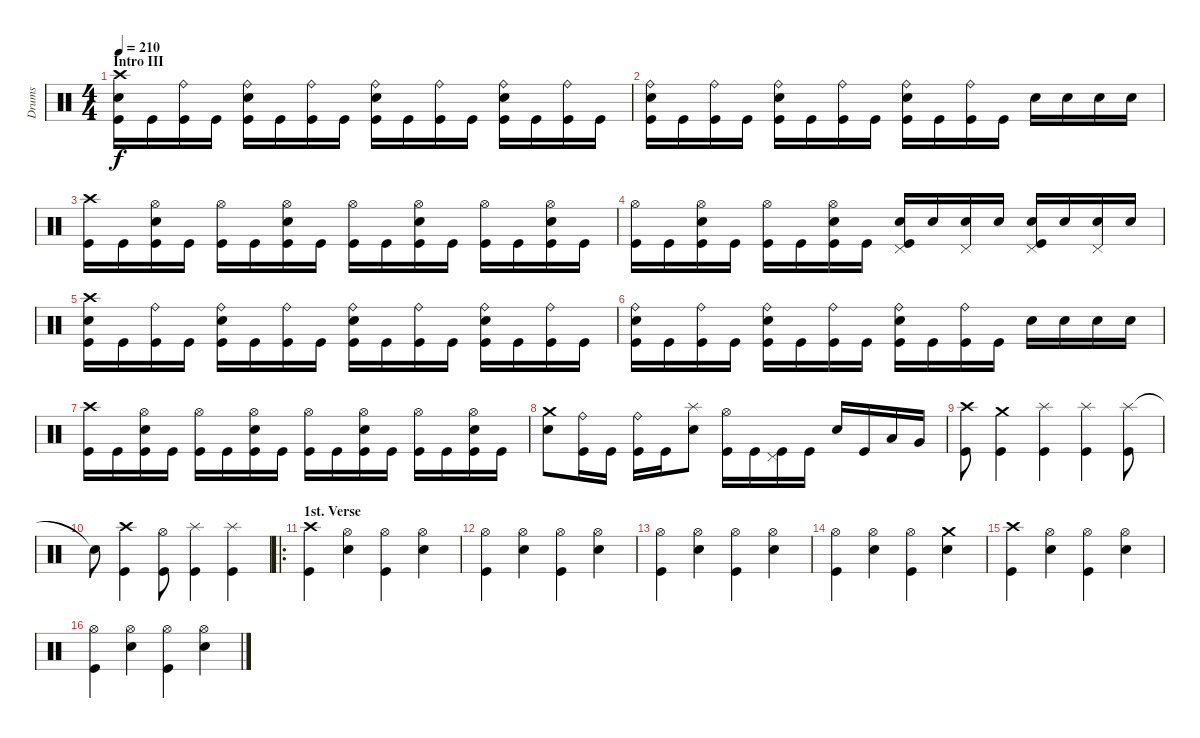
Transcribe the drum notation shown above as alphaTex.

\track ("Drums" "Drums") {instrument percussion}
\staff {score}
\articulation defaults
\ts (4 4)
\section ("" "Intro III")
\tempo 210
\clef neutral
\ks c
("Crash high (hit)" "Electric Snare (hit)" "Kick (hit)").16{dy f} "Kick (hit)".16 ("Ride (bell)" "Kick (hit)").16 "Kick (hit)".16 ("Ride (bell)" "Electric Snare (hit)" "Kick (hit)").16 "Kick (hit)".16 ("Ride (bell)" "Kick (hit)").16 "Kick (hit)".16 ("Ride (bell)" "Electric Snare (hit)" "Kick (hit)").16 "Kick (hit)".16 ("Ride (bell)" "Kick (hit)").16 "Kick (hit)".16 ("Ride (bell)" "Electric Snare (hit)" "Kick (hit)").16 "Kick (hit)".16 ("Ride (bell)" "Kick (hit)").16 "Kick (hit)".16 |
("Ride (bell)" "Electric Snare (hit)" "Kick (hit)").16 "Kick (hit)".16 ("Ride (bell)" "Kick (hit)").16 "Kick (hit)".16 ("Ride (bell)" "Electric Snare (hit)" "Kick (hit)").16 "Kick (hit)".16 ("Ride (bell)" "Kick (hit)").16 "Kick (hit)".16 ("Ride (bell)" "Electric Snare (hit)" "Kick (hit)").16 "Kick (hit)".16 ("Ride (bell)" "Kick (hit)").16 "Kick (hit)".16 "Electric Snare (hit)".16 "Electric Snare (hit)".16 "Electric Snare (hit)".16 "Electric Snare (hit)".16 |
("Crash high (hit)" "Kick (hit)").16 "Kick (hit)".16 ("Hi-Hat (open)" "Electric Snare (hit)" "Kick (hit)").16 "Kick (hit)".16 ("Hi-Hat (open)" "Kick (hit)").16 "Kick (hit)".16 ("Hi-Hat (open)" "Electric Snare (hit)" "Kick (hit)").16 "Kick (hit)".16 ("Hi-Hat (open)" "Kick (hit)").16 "Kick (hit)".16 ("Hi-Hat (open)" "Electric Snare (hit)" "Kick (hit)").16 "Kick (hit)".16 ("Hi-Hat (open)" "Kick (hit)").16 "Kick (hit)".16 ("Hi-Hat (open)" "Electric Snare (hit)" "Kick (hit)").16 "Kick (hit)".16 |
("Hi-Hat (open)" "Kick (hit)").16 "Kick (hit)".16 ("Hi-Hat (open)" "Electric Snare (hit)" "Kick (hit)").16 "Kick (hit)".16 ("Hi-Hat (open)" "Kick (hit)").16 "Kick (hit)".16 ("Hi-Hat (open)" "Electric Snare (hit)" "Kick (hit)").16 "Kick (hit)".16 ("Pedal Hi-Hat (hit)" "Electric Snare (hit)" "Kick (hit)").16 "Electric Snare (hit)".16 ("Pedal Hi-Hat (hit)" "Electric Snare (hit)").16 "Electric Snare (hit)".16 ("Pedal Hi-Hat (hit)" "Electric Snare (hit)" "Kick (hit)").16 "Electric Snare (hit)".16 ("Pedal Hi-Hat (hit)" "Electric Snare (hit)").16 "Electric Snare (hit)".16 |
("Crash high (hit)" "Electric Snare (hit)" "Kick (hit)").16 "Kick (hit)".16 ("Ride (bell)" "Kick (hit)").16 "Kick (hit)".16 ("Ride (bell)" "Electric Snare (hit)" "Kick (hit)").16 "Kick (hit)".16 ("Ride (bell)" "Kick (hit)").16 "Kick (hit)".16 ("Ride (bell)" "Electric Snare (hit)" "Kick (hit)").16 "Kick (hit)".16 ("Ride (bell)" "Kick (hit)").16 "Kick (hit)".16 ("Ride (bell)" "Electric Snare (hit)" "Kick (hit)").16 "Kick (hit)".16 ("Ride (bell)" "Kick (hit)").16 "Kick (hit)".16 |
("Ride (bell)" "Electric Snare (hit)" "Kick (hit)").16 "Kick (hit)".16 ("Ride (bell)" "Kick (hit)").16 "Kick (hit)".16 ("Ride (bell)" "Electric Snare (hit)" "Kick (hit)").16 "Kick (hit)".16 ("Ride (bell)" "Kick (hit)").16 "Kick (hit)".16 ("Ride (bell)" "Electric Snare (hit)" "Kick (hit)").16 "Kick (hit)".16 ("Ride (bell)" "Kick (hit)").16 "Kick (hit)".16 "Electric Snare (hit)".16 "Electric Snare (hit)".16 "Electric Snare (hit)".16 "Electric Snare (hit)".16 |
("Crash high (hit)" "Kick (hit)").16 "Kick (hit)".16 ("Hi-Hat (open)" "Electric Snare (hit)" "Kick (hit)").16 "Kick (hit)".16 ("Hi-Hat (open)" "Kick (hit)").16 "Kick (hit)".16 ("Hi-Hat (open)" "Electric Snare (hit)" "Kick (hit)").16 "Kick (hit)".16 ("Hi-Hat (open)" "Kick (hit)").16 "Kick (hit)".16 ("Hi-Hat (open)" "Electric Snare (hit)" "Kick (hit)").16 "Kick (hit)".16 ("Hi-Hat (open)" "Kick (hit)").16 "Kick (hit)".16 ("Hi-Hat (open)" "Electric Snare (hit)" "Kick (hit)").16 "Kick (hit)".16 |
("Crash medium (hit)" "Electric Snare (hit)").8 ("Ride (bell)" "Kick (hit)").16 "Kick (hit)".16 ("Ride (bell)" "Kick (hit)").16 "Kick (hit)".16 ("Splash (hit)" "Electric Snare (hit)").8 ("Hi-Hat (open)" "Kick (hit)").16 "Kick (hit)".16 ("Pedal Hi-Hat (hit)" "Kick (hit)").16 "Kick (hit)".16 "Electric Snare (hit)".16 "Kick (hit)".16 "Low Tom (hit)".16 "Very Low Tom (hit)".16 |
("Crash high (hit)" "Kick (hit)").8 ("Crash medium (hit)" "Kick (hit)").4 ("Splash (hit)" "Kick (hit)").4 ("Splash (hit)" "Kick (hit)").4 ("Splash (hit)" "Kick (hit)").8 |
"Snare (hit)"{t}.8 ("Crash high (hit)" "Kick (hit)").4 ("Hi-Hat (open)" "Kick (hit)").8 ("Splash (hit)" "Kick (hit)").4 ("Splash (hit)" "Kick (hit)").4 |
\ro
\section ("" "1st. Verse")
("Crash high (hit)" "Kick (hit)").4 ("Hi-Hat (open)" "Electric Snare (hit)").4 ("Hi-Hat (open)" "Kick (hit)").4 ("Hi-Hat (open)" "Electric Snare (hit)").4 |
("Hi-Hat (open)" "Kick (hit)").4 ("Hi-Hat (open)" "Electric Snare (hit)").4 ("Hi-Hat (open)" "Kick (hit)").4 ("Hi-Hat (open)" "Electric Snare (hit)").4 |
("Hi-Hat (open)" "Kick (hit)").4 ("Hi-Hat (open)" "Electric Snare (hit)").4 ("Hi-Hat (open)" "Kick (hit)").4 ("Hi-Hat (open)" "Electric Snare (hit)").4 |
("Hi-Hat (open)" "Kick (hit)").4 ("Hi-Hat (open)" "Electric Snare (hit)").4 ("Hi-Hat (open)" "Kick (hit)").4 ("Crash medium (hit)" "Electric Snare (hit)").4 |
("Crash high (hit)" "Kick (hit)").4 ("Hi-Hat (open)" "Electric Snare (hit)").4 ("Hi-Hat (open)" "Kick (hit)").4 ("Hi-Hat (open)" "Electric Snare (hit)").4 |
("Hi-Hat (open)" "Kick (hit)").4 ("Hi-Hat (open)" "Electric Snare (hit)").4 ("Hi-Hat (open)" "Kick (hit)").4 ("Hi-Hat (open)" "Electric Snare (hit)").4
